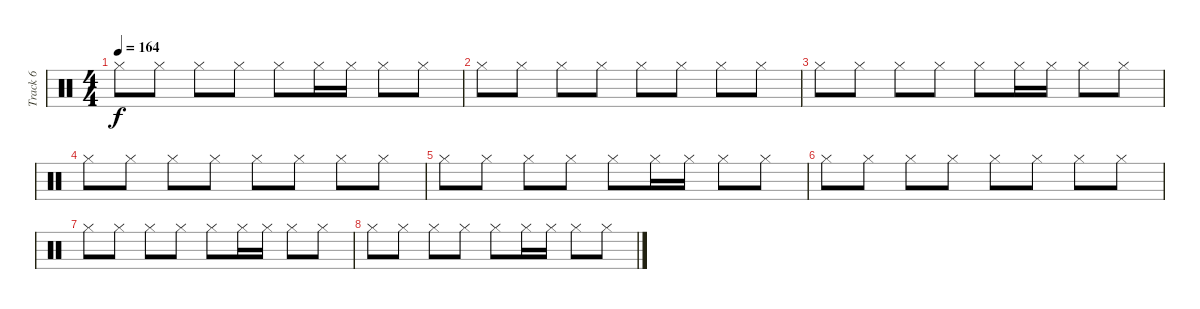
\track ("Track 6" "Track 6") {instrument percussion}
\staff {score}
\articulation defaults
\ts (4 4)
\tempo 164
\clef neutral
\ks c "Hi-Hat (closed)".8{dy f} "Hi-Hat (closed)".8 "Hi-Hat (closed)".8 "Hi-Hat (closed)".8 "Hi-Hat (closed)".8 "Hi-Hat (closed)".16 "Hi-Hat (closed)".16 "Hi-Hat (closed)".8 "Hi-Hat (closed)".8
|
"Hi-Hat (closed)".8 "Hi-Hat (closed)".8 "Hi-Hat (closed)".8 "Hi-Hat (closed)".8 "Hi-Hat (closed)".8 "Hi-Hat (closed)".8 "Hi-Hat (closed)".8 "Hi-Hat (closed)".8 |
"Hi-Hat (closed)".8 "Hi-Hat (closed)".8 "Hi-Hat (closed)".8 "Hi-Hat (closed)".8 "Hi-Hat (closed)".8 "Hi-Hat (closed)".16 "Hi-Hat (closed)".16 "Hi-Hat (closed)".8 "Hi-Hat (closed)".8 |
"Hi-Hat (closed)".8 "Hi-Hat (closed)".8 "Hi-Hat (closed)".8 "Hi-Hat (closed)".8 "Hi-Hat (closed)".8 "Hi-Hat (closed)".8 "Hi-Hat (closed)".8 "Hi-Hat (closed)".8 |
"Hi-Hat (closed)".8 "Hi-Hat (closed)".8 "Hi-Hat (closed)".8 "Hi-Hat (closed)".8 "Hi-Hat (closed)".8 "Hi-Hat (closed)".16 "Hi-Hat (closed)".16 "Hi-Hat (closed)".8 "Hi-Hat (closed)".8 |
"Hi-Hat (closed)".8 "Hi-Hat (closed)".8 "Hi-Hat (closed)".8 "Hi-Hat (closed)".8 "Hi-Hat (closed)".8 "Hi-Hat (closed)".8 "Hi-Hat (closed)".8 "Hi-Hat (closed)".8 |
"Hi-Hat (closed)".8 "Hi-Hat (closed)".8 "Hi-Hat (closed)".8 "Hi-Hat (closed)".8 "Hi-Hat (closed)".8 "Hi-Hat (closed)".16 "Hi-Hat (closed)".16 "Hi-Hat (closed)".8 "Hi-Hat (closed)".8 |
"Hi-Hat (closed)".8 "Hi-Hat (closed)".8 "Hi-Hat (closed)".8 "Hi-Hat (closed)".8 "Hi-Hat (closed)".8 "Hi-Hat (closed)".16 "Hi-Hat (closed)".16 "Hi-Hat (closed)".8 "Hi-Hat (closed)".8
